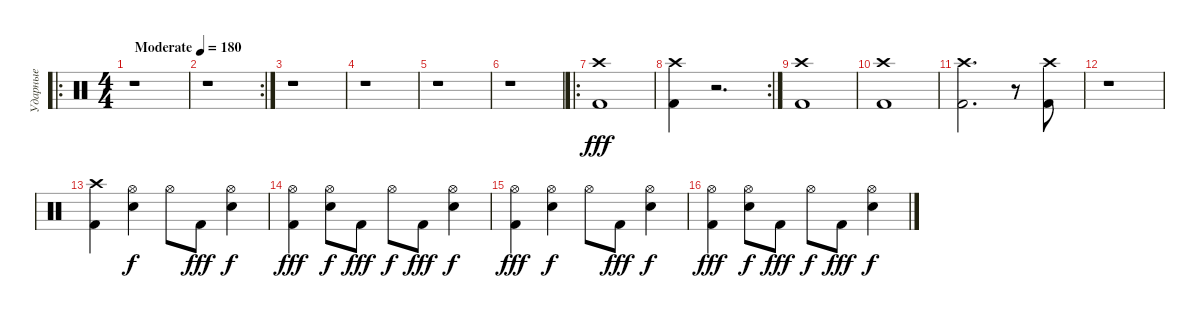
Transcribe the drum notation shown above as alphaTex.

\track ("Ударные" "Ударные") {instrument percussion}
\staff
\articulation defaults
\ro
\ts (4 4)
\tempo (180 "Moderate")
\clef neutral
\ks c
r.1{dy fff} |
\rc 2
r.1 |
r.1 |
r.1 |
r.1 |
r.1 |
\ro
("Kick (hit) 2" "Crash high (hit)").1 |
\rc 2
("Kick (hit) 2" "Crash high (hit)").4 r.2{d} |
("Kick (hit) 2" "Crash high (hit)").1 |
("Kick (hit) 2" "Crash high (hit)").1 |
("Kick (hit) 2" "Crash high (hit)").2{d} r.8 ("Kick (hit) 2" "Crash high (hit)").8 |
r.1 |
("Kick (hit) 2" "Crash high (hit)").4 ("Snare (hit) 2" "Hi-Hat (open)").4{dy f} "Hi-Hat (open)".8 "Kick (hit) 2".8{dy fff} ("Snare (hit) 2" "Hi-Hat (open)").4{dy f} |
("Kick (hit) 2" "Hi-Hat (open)").4{dy fff} ("Snare (hit) 2" "Hi-Hat (open)").8{dy f} "Kick (hit) 2".8{dy fff} "Hi-Hat (open)".8{dy f} "Kick (hit) 2".8{dy fff} ("Snare (hit) 2" "Hi-Hat (open)").4{dy f} |
("Kick (hit) 2" "Hi-Hat (open)").4{dy fff} ("Snare (hit) 2" "Hi-Hat (open)").4{dy f} "Hi-Hat (open)".8 "Kick (hit) 2".8{dy fff} ("Snare (hit) 2" "Hi-Hat (open)").4{dy f} |
("Kick (hit) 2" "Hi-Hat (open)").4{dy fff} ("Snare (hit) 2" "Hi-Hat (open)").8{dy f} "Kick (hit) 2".8{dy fff} "Hi-Hat (open)".8{dy f} "Kick (hit) 2".8{dy fff} ("Snare (hit) 2" "Hi-Hat (open)").4{dy f}
